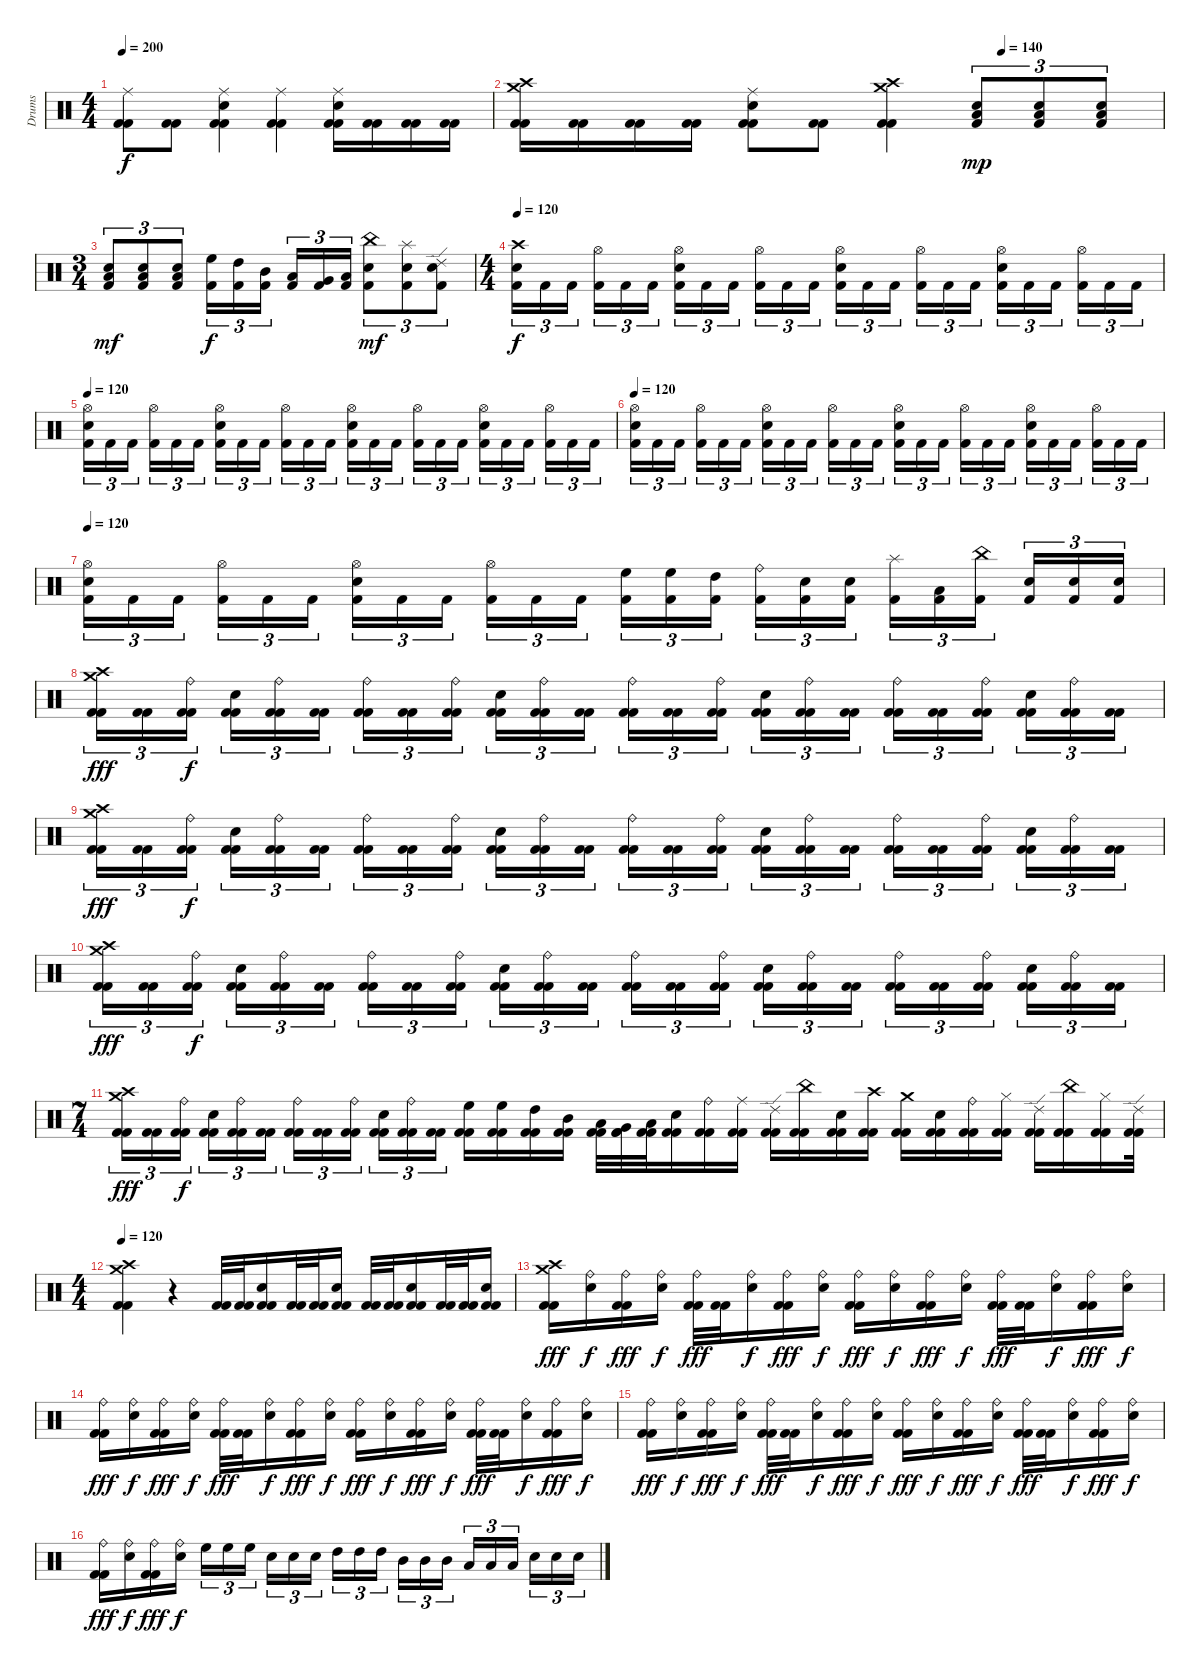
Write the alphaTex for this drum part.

\track ("Drums" "Drums") {instrument percussion}
\staff {score}
\articulation defaults
\ts (4 4)
\tempo 200
\clef neutral
\ks c
("Ride (middle)" "Kick (hit) 2" "Kick (hit) 2").8{dy f} ("Kick (hit) 2" "Kick (hit) 2").8 ("Electric Snare (hit)" "Ride (middle)" "Kick (hit) 2" "Kick (hit) 2").4 ("Ride (middle)" "Kick (hit) 2" "Kick (hit) 2").4 ("Electric Snare (hit)" "Ride (middle)" "Kick (hit) 2" "Kick (hit) 2").16 ("Kick (hit) 2" "Kick (hit) 2").16 ("Kick (hit) 2" "Kick (hit) 2").16 ("Kick (hit) 2" "Kick (hit) 2").16 |
\tempo (140 0.75)
("Crash high (hit)" "Crash medium (hit)" "Kick (hit) 2" "Kick (hit) 2").16 ("Kick (hit) 2" "Kick (hit) 2").16 ("Kick (hit) 2" "Kick (hit) 2").16 ("Kick (hit) 2" "Kick (hit) 2").16 ("Electric Snare (hit)" "Ride (middle)" "Kick (hit) 2" "Kick (hit) 2").8 ("Kick (hit) 2" "Kick (hit) 2").8 ("Crash high (hit)" "Crash medium (hit)" "Kick (hit) 2" "Kick (hit) 2").4 ("Low Floor Tom (hit)" "Kick (hit) 2" "Electric Snare (hit)").8{tu (3 2) dy mp} ("Low Floor Tom (hit)" "Kick (hit) 2" "Electric Snare (hit)").8{tu (3 2)} ("Low Floor Tom (hit)" "Kick (hit) 2" "Electric Snare (hit)").8{tu (3 2)} |
\ts (3 4)
("Low Floor Tom (hit)" "Electric Snare (hit)" "Kick (hit) 2").8{tu (3 2) dy mf} ("Low Floor Tom (hit)" "Electric Snare (hit)" "Kick (hit) 2").8{tu (3 2)} ("Low Floor Tom (hit)" "Electric Snare (hit)" "Kick (hit) 2").8{tu (3 2)} ("High Floor Tom (hit)" "Kick (hit) 2").16{tu (3 2) dy f} ("High Tom (hit)" "Kick (hit) 2").16{tu (3 2)} ("Mid Tom (hit)" "Kick (hit) 2").16{tu (3 2)} ("Low Tom (hit)" "Kick (hit) 2").16{tu (3 2)} ("Very Low Tom (hit)" "Kick (hit) 2").16{tu (3 2)} ("Low Floor Tom (hit)" "Kick (hit) 2").16{tu (3 2)} ("China (hit)" "Electric Snare (hit)" "Kick (hit) 2").8{tu (3 2) dy mf} ("Splash (hit)" "Electric Snare (hit)" "Kick (hit) 2").8{tu (3 2)} ("Ride (edge) 2" "Electric Snare (hit)" "Kick (hit) 2").8{tu (3 2)} |
\ts (4 4)
\tempo 120
("Crash high (hit)" "Electric Snare (hit)" "Kick (hit) 2").16{tu (3 2) dy f} "Kick (hit) 2".16{tu (3 2)} "Kick (hit) 2".16{tu (3 2)} ("Hi-Hat (open)" "Kick (hit) 2").16{tu (3 2)} "Kick (hit) 2".16{tu (3 2)} "Kick (hit) 2".16{tu (3 2)} ("Electric Snare (hit)" "Hi-Hat (open)" "Kick (hit) 2").16{tu (3 2)} "Kick (hit) 2".16{tu (3 2)} "Kick (hit) 2".16{tu (3 2)} ("Hi-Hat (open)" "Kick (hit) 2").16{tu (3 2)} "Kick (hit) 2".16{tu (3 2)} "Kick (hit) 2".16{tu (3 2)} ("Electric Snare (hit)" "Hi-Hat (open)" "Kick (hit) 2").16{tu (3 2)} "Kick (hit) 2".16{tu (3 2)} "Kick (hit) 2".16{tu (3 2)} ("Hi-Hat (open)" "Kick (hit) 2").16{tu (3 2)} "Kick (hit) 2".16{tu (3 2)} "Kick (hit) 2".16{tu (3 2)} ("Electric Snare (hit)" "Hi-Hat (open)" "Kick (hit) 2").16{tu (3 2)} "Kick (hit) 2".16{tu (3 2)} "Kick (hit) 2".16{tu (3 2)} ("Hi-Hat (open)" "Kick (hit) 2").16{tu (3 2)} "Kick (hit) 2".16{tu (3 2)} "Kick (hit) 2".16{tu (3 2)} |
\tempo 120
("Hi-Hat (open)" "Electric Snare (hit)" "Kick (hit) 2").16{tu (3 2)} "Kick (hit) 2".16{tu (3 2)} "Kick (hit) 2".16{tu (3 2)} ("Hi-Hat (open)" "Kick (hit) 2").16{tu (3 2)} "Kick (hit) 2".16{tu (3 2)} "Kick (hit) 2".16{tu (3 2)} ("Electric Snare (hit)" "Hi-Hat (open)" "Kick (hit) 2").16{tu (3 2)} "Kick (hit) 2".16{tu (3 2)} "Kick (hit) 2".16{tu (3 2)} ("Hi-Hat (open)" "Kick (hit) 2").16{tu (3 2)} "Kick (hit) 2".16{tu (3 2)} "Kick (hit) 2".16{tu (3 2)} ("Electric Snare (hit)" "Hi-Hat (open)" "Kick (hit) 2").16{tu (3 2)} "Kick (hit) 2".16{tu (3 2)} "Kick (hit) 2".16{tu (3 2)} ("Hi-Hat (open)" "Kick (hit) 2").16{tu (3 2)} "Kick (hit) 2".16{tu (3 2)} "Kick (hit) 2".16{tu (3 2)} ("Electric Snare (hit)" "Hi-Hat (open)" "Kick (hit) 2").16{tu (3 2)} "Kick (hit) 2".16{tu (3 2)} "Kick (hit) 2".16{tu (3 2)} ("Hi-Hat (open)" "Kick (hit) 2").16{tu (3 2)} "Kick (hit) 2".16{tu (3 2)} "Kick (hit) 2".16{tu (3 2)} |
\tempo 120
("Hi-Hat (open)" "Electric Snare (hit)" "Kick (hit) 2").16{tu (3 2)} "Kick (hit) 2".16{tu (3 2)} "Kick (hit) 2".16{tu (3 2)} ("Hi-Hat (open)" "Kick (hit) 2").16{tu (3 2)} "Kick (hit) 2".16{tu (3 2)} "Kick (hit) 2".16{tu (3 2)} ("Electric Snare (hit)" "Hi-Hat (open)" "Kick (hit) 2").16{tu (3 2)} "Kick (hit) 2".16{tu (3 2)} "Kick (hit) 2".16{tu (3 2)} ("Hi-Hat (open)" "Kick (hit) 2").16{tu (3 2)} "Kick (hit) 2".16{tu (3 2)} "Kick (hit) 2".16{tu (3 2)} ("Electric Snare (hit)" "Hi-Hat (open)" "Kick (hit) 2").16{tu (3 2)} "Kick (hit) 2".16{tu (3 2)} "Kick (hit) 2".16{tu (3 2)} ("Hi-Hat (open)" "Kick (hit) 2").16{tu (3 2)} "Kick (hit) 2".16{tu (3 2)} "Kick (hit) 2".16{tu (3 2)} ("Electric Snare (hit)" "Hi-Hat (open)" "Kick (hit) 2").16{tu (3 2)} "Kick (hit) 2".16{tu (3 2)} "Kick (hit) 2".16{tu (3 2)} ("Hi-Hat (open)" "Kick (hit) 2").16{tu (3 2)} "Kick (hit) 2".16{tu (3 2)} "Kick (hit) 2".16{tu (3 2)} |
\tempo 120
("Hi-Hat (open)" "Electric Snare (hit)" "Kick (hit) 2").16{tu (3 2)} "Kick (hit) 2".16{tu (3 2)} "Kick (hit) 2".16{tu (3 2)} ("Hi-Hat (open)" "Kick (hit) 2").16{tu (3 2)} "Kick (hit) 2".16{tu (3 2)} "Kick (hit) 2".16{tu (3 2)} ("Electric Snare (hit)" "Hi-Hat (open)" "Kick (hit) 2").16{tu (3 2)} "Kick (hit) 2".16{tu (3 2)} "Kick (hit) 2".16{tu (3 2)} ("Hi-Hat (open)" "Kick (hit) 2").16{tu (3 2)} "Kick (hit) 2".16{tu (3 2)} "Kick (hit) 2".16{tu (3 2)} ("High Floor Tom (hit)" "Kick (hit) 2").16{tu (3 2)} ("High Floor Tom (hit)" "Kick (hit) 2").16{tu (3 2)} ("High Tom (hit)" "Kick (hit) 2").16{tu (3 2)} ("Ride (bell)" "Kick (hit) 2").16{tu (3 2)} ("Electric Snare (hit)" "Kick (hit) 2").16{tu (3 2)} ("Electric Snare (hit)" "Kick (hit) 2").16{tu (3 2)} ("Splash (hit)" "Kick (hit) 2").16{tu (3 2)} ("Low Tom (hit)" "Kick (hit) 2").16{tu (3 2)} ("China (hit)" "Kick (hit) 2").16{tu (3 2)} ("Electric Snare (hit)" "Kick (hit) 2").16{tu (3 2)} ("Electric Snare (hit)" "Kick (hit) 2").16{tu (3 2)} ("Electric Snare (hit)" "Kick (hit) 2").16{tu (3 2)} |
("Crash high (hit)" "Crash medium (hit)" "Kick (hit) 2" "Kick (hit) 2").16{tu (3 2) dy fff} ("Kick (hit) 2" "Kick (hit) 2").16{tu (3 2)} ("Ride (bell)" "Kick (hit) 2" "Kick (hit) 2").16{tu (3 2) dy f} ("Electric Snare (hit)" "Kick (hit) 2" "Kick (hit) 2").16{tu (3 2)} ("Ride (bell)" "Kick (hit) 2" "Kick (hit) 2").16{tu (3 2)} ("Kick (hit) 2" "Kick (hit) 2").16{tu (3 2)} ("Ride (bell)" "Kick (hit) 2" "Kick (hit) 2").16{tu (3 2)} ("Kick (hit) 2" "Kick (hit) 2").16{tu (3 2)} ("Ride (bell)" "Kick (hit) 2" "Kick (hit) 2").16{tu (3 2)} ("Electric Snare (hit)" "Kick (hit) 2" "Kick (hit) 2").16{tu (3 2)} ("Ride (bell)" "Kick (hit) 2" "Kick (hit) 2").16{tu (3 2)} ("Kick (hit) 2" "Kick (hit) 2").16{tu (3 2)} ("Ride (bell)" "Kick (hit) 2" "Kick (hit) 2").16{tu (3 2)} ("Kick (hit) 2" "Kick (hit) 2").16{tu (3 2)} ("Ride (bell)" "Kick (hit) 2" "Kick (hit) 2").16{tu (3 2)} ("Electric Snare (hit)" "Kick (hit) 2" "Kick (hit) 2").16{tu (3 2)} ("Ride (bell)" "Kick (hit) 2" "Kick (hit) 2").16{tu (3 2)} ("Kick (hit) 2" "Kick (hit) 2").16{tu (3 2)} ("Ride (bell)" "Kick (hit) 2" "Kick (hit) 2").16{tu (3 2)} ("Kick (hit) 2" "Kick (hit) 2").16{tu (3 2)} ("Ride (bell)" "Kick (hit) 2" "Kick (hit) 2").16{tu (3 2)} ("Electric Snare (hit)" "Kick (hit) 2" "Kick (hit) 2").16{tu (3 2)} ("Ride (bell)" "Kick (hit) 2" "Kick (hit) 2").16{tu (3 2)} ("Kick (hit) 2" "Kick (hit) 2").16{tu (3 2)} |
("Crash high (hit)" "Crash medium (hit)" "Kick (hit) 2" "Kick (hit) 2").16{tu (3 2) dy fff} ("Kick (hit) 2" "Kick (hit) 2").16{tu (3 2)} ("Ride (bell)" "Kick (hit) 2" "Kick (hit) 2").16{tu (3 2) dy f} ("Electric Snare (hit)" "Kick (hit) 2" "Kick (hit) 2").16{tu (3 2)} ("Ride (bell)" "Kick (hit) 2" "Kick (hit) 2").16{tu (3 2)} ("Kick (hit) 2" "Kick (hit) 2").16{tu (3 2)} ("Ride (bell)" "Kick (hit) 2" "Kick (hit) 2").16{tu (3 2)} ("Kick (hit) 2" "Kick (hit) 2").16{tu (3 2)} ("Ride (bell)" "Kick (hit) 2" "Kick (hit) 2").16{tu (3 2)} ("Electric Snare (hit)" "Kick (hit) 2" "Kick (hit) 2").16{tu (3 2)} ("Ride (bell)" "Kick (hit) 2" "Kick (hit) 2").16{tu (3 2)} ("Kick (hit) 2" "Kick (hit) 2").16{tu (3 2)} ("Ride (bell)" "Kick (hit) 2" "Kick (hit) 2").16{tu (3 2)} ("Kick (hit) 2" "Kick (hit) 2").16{tu (3 2)} ("Ride (bell)" "Kick (hit) 2" "Kick (hit) 2").16{tu (3 2)} ("Electric Snare (hit)" "Kick (hit) 2" "Kick (hit) 2").16{tu (3 2)} ("Ride (bell)" "Kick (hit) 2" "Kick (hit) 2").16{tu (3 2)} ("Kick (hit) 2" "Kick (hit) 2").16{tu (3 2)} ("Ride (bell)" "Kick (hit) 2" "Kick (hit) 2").16{tu (3 2)} ("Kick (hit) 2" "Kick (hit) 2").16{tu (3 2)} ("Ride (bell)" "Kick (hit) 2" "Kick (hit) 2").16{tu (3 2)} ("Electric Snare (hit)" "Kick (hit) 2" "Kick (hit) 2").16{tu (3 2)} ("Ride (bell)" "Kick (hit) 2" "Kick (hit) 2").16{tu (3 2)} ("Kick (hit) 2" "Kick (hit) 2").16{tu (3 2)} |
("Crash high (hit)" "Crash medium (hit)" "Kick (hit) 2" "Kick (hit) 2").16{tu (3 2) dy fff} ("Kick (hit) 2" "Kick (hit) 2").16{tu (3 2)} ("Ride (bell)" "Kick (hit) 2" "Kick (hit) 2").16{tu (3 2) dy f} ("Electric Snare (hit)" "Kick (hit) 2" "Kick (hit) 2").16{tu (3 2)} ("Ride (bell)" "Kick (hit) 2" "Kick (hit) 2").16{tu (3 2)} ("Kick (hit) 2" "Kick (hit) 2").16{tu (3 2)} ("Ride (bell)" "Kick (hit) 2" "Kick (hit) 2").16{tu (3 2)} ("Kick (hit) 2" "Kick (hit) 2").16{tu (3 2)} ("Ride (bell)" "Kick (hit) 2" "Kick (hit) 2").16{tu (3 2)} ("Electric Snare (hit)" "Kick (hit) 2" "Kick (hit) 2").16{tu (3 2)} ("Ride (bell)" "Kick (hit) 2" "Kick (hit) 2").16{tu (3 2)} ("Kick (hit) 2" "Kick (hit) 2").16{tu (3 2)} ("Ride (bell)" "Kick (hit) 2" "Kick (hit) 2").16{tu (3 2)} ("Kick (hit) 2" "Kick (hit) 2").16{tu (3 2)} ("Ride (bell)" "Kick (hit) 2" "Kick (hit) 2").16{tu (3 2)} ("Electric Snare (hit)" "Kick (hit) 2" "Kick (hit) 2").16{tu (3 2)} ("Ride (bell)" "Kick (hit) 2" "Kick (hit) 2").16{tu (3 2)} ("Kick (hit) 2" "Kick (hit) 2").16{tu (3 2)} ("Ride (bell)" "Kick (hit) 2" "Kick (hit) 2").16{tu (3 2)} ("Kick (hit) 2" "Kick (hit) 2").16{tu (3 2)} ("Ride (bell)" "Kick (hit) 2" "Kick (hit) 2").16{tu (3 2)} ("Electric Snare (hit)" "Kick (hit) 2" "Kick (hit) 2").16{tu (3 2)} ("Ride (bell)" "Kick (hit) 2" "Kick (hit) 2").16{tu (3 2)} ("Kick (hit) 2" "Kick (hit) 2").16{tu (3 2)} |
\ts (7 4)
("Crash high (hit)" "Crash medium (hit)" "Kick (hit) 2" "Kick (hit) 2").16{tu (3 2) dy fff} ("Kick (hit) 2" "Kick (hit) 2").16{tu (3 2)} ("Ride (bell)" "Kick (hit) 2" "Kick (hit) 2").16{tu (3 2) dy f} ("Electric Snare (hit)" "Kick (hit) 2" "Kick (hit) 2").16{tu (3 2)} ("Ride (bell)" "Kick (hit) 2" "Kick (hit) 2").16{tu (3 2)} ("Kick (hit) 2" "Kick (hit) 2").16{tu (3 2)} ("Ride (bell)" "Kick (hit) 2" "Kick (hit) 2").16{tu (3 2)} ("Kick (hit) 2" "Kick (hit) 2").16{tu (3 2)} ("Ride (bell)" "Kick (hit) 2" "Kick (hit) 2").16{tu (3 2)} ("Electric Snare (hit)" "Kick (hit) 2" "Kick (hit) 2").16{tu (3 2)} ("Ride (bell)" "Kick (hit) 2" "Kick (hit) 2").16{tu (3 2)} ("Kick (hit) 2" "Kick (hit) 2").16{tu (3 2)} ("High Floor Tom (hit)" "Kick (hit) 2" "Kick (hit) 2").16 ("High Floor Tom (hit)" "Kick (hit) 2" "Kick (hit) 2").16 ("High Tom (hit)" "Kick (hit) 2" "Kick (hit) 2").16 ("Mid Tom (hit)" "Kick (hit) 2" "Kick (hit) 2").16 ("Low Tom (hit)" "Kick (hit) 2" "Kick (hit) 2").32 ("Very Low Tom (hit)" "Kick (hit) 2" "Kick (hit) 2").32 ("Low Floor Tom (hit)" "Kick (hit) 2" "Kick (hit) 2").32 ("Electric Snare (hit)" "Kick (hit) 2" "Kick (hit) 2").16 ("Ride (bell)" "Kick (hit) 2" "Kick (hit) 2").16 ("Ride (middle)" "Kick (hit) 2" "Kick (hit) 2").16 ("Ride (edge) 2" "Kick (hit) 2" "Kick (hit) 2").16 ("China (hit)" "Kick (hit) 2" "Kick (hit) 2").16 ("Electric Snare (hit)" "Kick (hit) 2" "Kick (hit) 2").16 ("Crash high (hit)" "Kick (hit) 2" "Kick (hit) 2").16 ("Crash medium (hit)" "Kick (hit) 2" "Kick (hit) 2").16 ("Electric Snare (hit)" "Kick (hit) 2" "Kick (hit) 2").16 ("Ride (bell)" "Kick (hit) 2" "Kick (hit) 2").16 ("Hi-Hat (closed)" "Kick (hit) 2" "Kick (hit) 2").16 ("Ride (edge) 2" "Kick (hit) 2" "Kick (hit) 2").16 ("China (hit)" "Kick (hit) 2" "Kick (hit) 2").16 ("Hi-Hat (closed)" "Kick (hit) 2" "Kick (hit) 2").16 ("Ride (edge) 2" "Kick (hit) 2" "Kick (hit) 2").32 |
\ts (4 4)
\tempo 120
("Crash medium (hit)" "Crash high (hit)" "Kick (hit) 2" "Kick (hit) 2").4 r.4 ("Kick (hit) 2" "Kick (hit) 2").32 ("Kick (hit) 2" "Kick (hit) 2").32 ("Electric Snare (hit)" "Kick (hit) 2" "Kick (hit) 2").16 ("Kick (hit) 2" "Kick (hit) 2").32 ("Kick (hit) 2" "Kick (hit) 2").32 ("Electric Snare (hit)" "Kick (hit) 2" "Kick (hit) 2").16 ("Kick (hit) 2" "Kick (hit) 2").32 ("Kick (hit) 2" "Kick (hit) 2").32 ("Electric Snare (hit)" "Kick (hit) 2" "Kick (hit) 2").16 ("Kick (hit) 2" "Kick (hit) 2").32 ("Kick (hit) 2" "Kick (hit) 2").32 ("Electric Snare (hit)" "Kick (hit) 2" "Kick (hit) 2").16 |
("Crash medium (hit)" "Crash high (hit)" "Kick (hit) 2" "Kick (hit) 2").16{dy fff} ("Ride (bell)" "Electric Snare (hit)").16{dy f} ("Ride (bell)" "Kick (hit) 2" "Kick (hit) 2").16{dy fff} ("Ride (bell)" "Electric Snare (hit)").16{dy f} ("Ride (bell)" "Kick (hit) 2" "Kick (hit) 2").32{dy fff} ("Kick (hit) 2" "Kick (hit) 2").32 ("Ride (bell)" "Electric Snare (hit)").16{dy f} ("Ride (bell)" "Kick (hit) 2" "Kick (hit) 2").16{dy fff} ("Ride (bell)" "Electric Snare (hit)").16{dy f} ("Ride (bell)" "Kick (hit) 2" "Kick (hit) 2").16{dy fff} ("Ride (bell)" "Electric Snare (hit)").16{dy f} ("Ride (bell)" "Kick (hit) 2" "Kick (hit) 2").16{dy fff} ("Ride (bell)" "Electric Snare (hit)").16{dy f} ("Ride (bell)" "Kick (hit) 2" "Kick (hit) 2").32{dy fff} ("Kick (hit) 2" "Kick (hit) 2").32 ("Ride (bell)" "Electric Snare (hit)").16{dy f} ("Ride (bell)" "Kick (hit) 2" "Kick (hit) 2").16{dy fff} ("Ride (bell)" "Electric Snare (hit)").16{dy f} |
("Ride (bell)" "Kick (hit) 2" "Kick (hit) 2").16{dy fff} ("Ride (bell)" "Electric Snare (hit)").16{dy f} ("Ride (bell)" "Kick (hit) 2" "Kick (hit) 2").16{dy fff} ("Ride (bell)" "Electric Snare (hit)").16{dy f} ("Ride (bell)" "Kick (hit) 2" "Kick (hit) 2").32{dy fff} ("Kick (hit) 2" "Kick (hit) 2").32 ("Ride (bell)" "Electric Snare (hit)").16{dy f} ("Ride (bell)" "Kick (hit) 2" "Kick (hit) 2").16{dy fff} ("Ride (bell)" "Electric Snare (hit)").16{dy f} ("Ride (bell)" "Kick (hit) 2" "Kick (hit) 2").16{dy fff} ("Ride (bell)" "Electric Snare (hit)").16{dy f} ("Ride (bell)" "Kick (hit) 2" "Kick (hit) 2").16{dy fff} ("Ride (bell)" "Electric Snare (hit)").16{dy f} ("Ride (bell)" "Kick (hit) 2" "Kick (hit) 2").32{dy fff} ("Kick (hit) 2" "Kick (hit) 2").32 ("Ride (bell)" "Electric Snare (hit)").16{dy f} ("Ride (bell)" "Kick (hit) 2" "Kick (hit) 2").16{dy fff} ("Ride (bell)" "Electric Snare (hit)").16{dy f} |
("Ride (bell)" "Kick (hit) 2" "Kick (hit) 2").16{dy fff} ("Ride (bell)" "Electric Snare (hit)").16{dy f} ("Ride (bell)" "Kick (hit) 2" "Kick (hit) 2").16{dy fff} ("Ride (bell)" "Electric Snare (hit)").16{dy f} ("Ride (bell)" "Kick (hit) 2" "Kick (hit) 2").32{dy fff} ("Kick (hit) 2" "Kick (hit) 2").32 ("Ride (bell)" "Electric Snare (hit)").16{dy f} ("Ride (bell)" "Kick (hit) 2" "Kick (hit) 2").16{dy fff} ("Ride (bell)" "Electric Snare (hit)").16{dy f} ("Ride (bell)" "Kick (hit) 2" "Kick (hit) 2").16{dy fff} ("Ride (bell)" "Electric Snare (hit)").16{dy f} ("Ride (bell)" "Kick (hit) 2" "Kick (hit) 2").16{dy fff} ("Ride (bell)" "Electric Snare (hit)").16{dy f} ("Ride (bell)" "Kick (hit) 2" "Kick (hit) 2").32{dy fff} ("Kick (hit) 2" "Kick (hit) 2").32 ("Ride (bell)" "Electric Snare (hit)").16{dy f} ("Ride (bell)" "Kick (hit) 2" "Kick (hit) 2").16{dy fff} ("Ride (bell)" "Electric Snare (hit)").16{dy f} |
("Ride (bell)" "Kick (hit) 2" "Kick (hit) 2").16{dy fff} ("Ride (bell)" "Electric Snare (hit)").16{dy f} ("Ride (bell)" "Kick (hit) 2" "Kick (hit) 2").16{dy fff} ("Ride (bell)" "Electric Snare (hit)").16{dy f} "High Floor Tom (hit)".16{tu (3 2)} "High Floor Tom (hit)".16{tu (3 2)} "High Floor Tom (hit)".16{tu (3 2)} "Electric Snare (hit)".16{tu (3 2)} "Electric Snare (hit)".16{tu (3 2)} "Electric Snare (hit)".16{tu (3 2)} "High Tom (hit)".16{tu (3 2)} "High Tom (hit)".16{tu (3 2)} "High Tom (hit)".16{tu (3 2)} "Mid Tom (hit)".16{tu (3 2)} "Mid Tom (hit)".16{tu (3 2)} "Mid Tom (hit)".16{tu (3 2)} "Low Tom (hit)".16{tu (3 2)} "Low Tom (hit)".16{tu (3 2)} "Low Tom (hit)".16{tu (3 2)} "Electric Snare (hit)".16{tu (3 2)} "Electric Snare (hit)".16{tu (3 2)} "Electric Snare (hit)".16{tu (3 2)}
